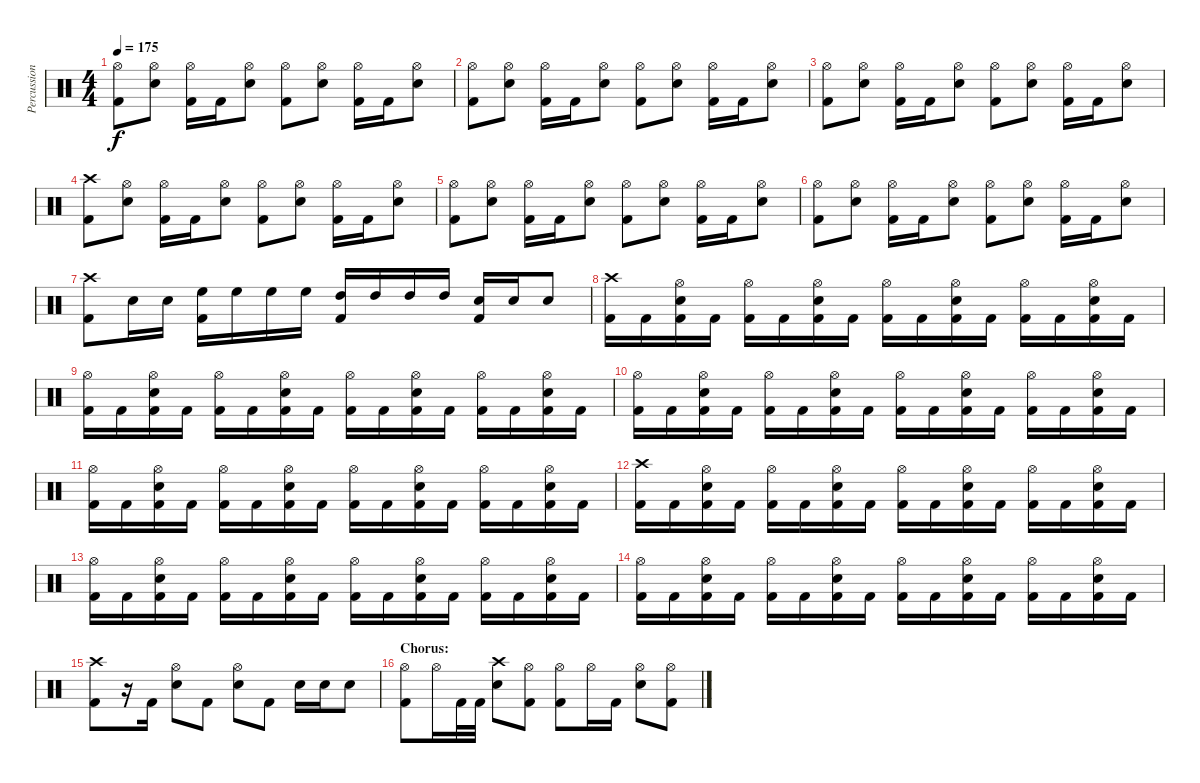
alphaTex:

\track ("Percussion" "Percussion") {instrument percussion}
\staff {score}
\articulation defaults
\ts (4 4)
\tempo 175
\clef neutral
\ks c
("Hi-Hat (open)" "Kick (hit) 2").8{dy f} ("Hi-Hat (open)" "Electric Snare (hit)").8 ("Hi-Hat (open)" "Kick (hit) 2").16 "Kick (hit) 2".16 ("Hi-Hat (open)" "Electric Snare (hit)").8 ("Hi-Hat (open)" "Kick (hit) 2").8 ("Hi-Hat (open)" "Electric Snare (hit)").8 ("Hi-Hat (open)" "Kick (hit) 2").16 "Kick (hit) 2".16 ("Hi-Hat (open)" "Electric Snare (hit)").8 |
("Hi-Hat (open)" "Kick (hit) 2").8 ("Hi-Hat (open)" "Electric Snare (hit)").8 ("Hi-Hat (open)" "Kick (hit) 2").16 "Kick (hit) 2".16 ("Hi-Hat (open)" "Electric Snare (hit)").8 ("Hi-Hat (open)" "Kick (hit) 2").8 ("Hi-Hat (open)" "Electric Snare (hit)").8 ("Hi-Hat (open)" "Kick (hit) 2").16 "Kick (hit) 2".16 ("Hi-Hat (open)" "Electric Snare (hit)").8 |
("Hi-Hat (open)" "Kick (hit) 2").8 ("Hi-Hat (open)" "Electric Snare (hit)").8 ("Hi-Hat (open)" "Kick (hit) 2").16 "Kick (hit) 2".16 ("Hi-Hat (open)" "Electric Snare (hit)").8 ("Hi-Hat (open)" "Kick (hit) 2").8 ("Hi-Hat (open)" "Electric Snare (hit)").8 ("Hi-Hat (open)" "Kick (hit) 2").16 "Kick (hit) 2".16 ("Hi-Hat (open)" "Electric Snare (hit)").8 |
("Crash high (hit)" "Kick (hit) 2").8 ("Hi-Hat (open)" "Electric Snare (hit)").8 ("Hi-Hat (open)" "Kick (hit) 2").16 "Kick (hit) 2".16 ("Hi-Hat (open)" "Electric Snare (hit)").8 ("Hi-Hat (open)" "Kick (hit) 2").8 ("Hi-Hat (open)" "Electric Snare (hit)").8 ("Hi-Hat (open)" "Kick (hit) 2").16 "Kick (hit) 2".16 ("Hi-Hat (open)" "Electric Snare (hit)").8 |
("Hi-Hat (open)" "Kick (hit) 2").8 ("Hi-Hat (open)" "Electric Snare (hit)").8 ("Hi-Hat (open)" "Kick (hit) 2").16 "Kick (hit) 2".16 ("Hi-Hat (open)" "Electric Snare (hit)").8 ("Hi-Hat (open)" "Kick (hit) 2").8 ("Hi-Hat (open)" "Electric Snare (hit)").8 ("Hi-Hat (open)" "Kick (hit) 2").16 "Kick (hit) 2".16 ("Hi-Hat (open)" "Electric Snare (hit)").8 |
("Hi-Hat (open)" "Kick (hit) 2").8 ("Hi-Hat (open)" "Electric Snare (hit)").8 ("Hi-Hat (open)" "Kick (hit) 2").16 "Kick (hit) 2".16 ("Hi-Hat (open)" "Electric Snare (hit)").8 ("Hi-Hat (open)" "Kick (hit) 2").8 ("Hi-Hat (open)" "Electric Snare (hit)").8 ("Hi-Hat (open)" "Kick (hit) 2").16 "Kick (hit) 2".16 ("Hi-Hat (open)" "Electric Snare (hit)").8 |
("Crash high (hit)" "Kick (hit) 2").8 "Electric Snare (hit)".16 "Electric Snare (hit)".16 ("High Floor Tom (hit)" "Kick (hit) 2").16 "High Floor Tom (hit)".16 "High Floor Tom (hit)".16 "High Floor Tom (hit)".16 ("High Tom (hit)" "Kick (hit) 2").16 "High Tom (hit)".16 "High Tom (hit)".16 "High Tom (hit)".16 ("Electric Snare (hit)" "Kick (hit) 2").16 "Electric Snare (hit)".16 "Electric Snare (hit)".8 |
("Crash high (hit)" "Kick (hit) 2").16 "Kick (hit) 2".16 ("Hi-Hat (open)" "Electric Snare (hit)" "Kick (hit) 2").16 "Kick (hit) 2".16 ("Hi-Hat (open)" "Kick (hit) 2").16 "Kick (hit) 2".16 ("Hi-Hat (open)" "Electric Snare (hit)" "Kick (hit) 2").16 "Kick (hit) 2".16 ("Hi-Hat (open)" "Kick (hit) 2").16 "Kick (hit) 2".16 ("Hi-Hat (open)" "Electric Snare (hit)" "Kick (hit) 2").16 "Kick (hit) 2".16 ("Hi-Hat (open)" "Kick (hit) 2").16 "Kick (hit) 2".16 ("Hi-Hat (open)" "Electric Snare (hit)" "Kick (hit) 2").16 "Kick (hit) 2".16 |
("Hi-Hat (open)" "Kick (hit) 2").16 "Kick (hit) 2".16 ("Hi-Hat (open)" "Electric Snare (hit)" "Kick (hit) 2").16 "Kick (hit) 2".16 ("Hi-Hat (open)" "Kick (hit) 2").16 "Kick (hit) 2".16 ("Hi-Hat (open)" "Electric Snare (hit)" "Kick (hit) 2").16 "Kick (hit) 2".16 ("Hi-Hat (open)" "Kick (hit) 2").16 "Kick (hit) 2".16 ("Hi-Hat (open)" "Electric Snare (hit)" "Kick (hit) 2").16 "Kick (hit) 2".16 ("Hi-Hat (open)" "Kick (hit) 2").16 "Kick (hit) 2".16 ("Hi-Hat (open)" "Electric Snare (hit)" "Kick (hit) 2").16 "Kick (hit) 2".16 |
("Hi-Hat (open)" "Kick (hit) 2").16 "Kick (hit) 2".16 ("Hi-Hat (open)" "Electric Snare (hit)" "Kick (hit) 2").16 "Kick (hit) 2".16 ("Hi-Hat (open)" "Kick (hit) 2").16 "Kick (hit) 2".16 ("Hi-Hat (open)" "Electric Snare (hit)" "Kick (hit) 2").16 "Kick (hit) 2".16 ("Hi-Hat (open)" "Kick (hit) 2").16 "Kick (hit) 2".16 ("Hi-Hat (open)" "Electric Snare (hit)" "Kick (hit) 2").16 "Kick (hit) 2".16 ("Hi-Hat (open)" "Kick (hit) 2").16 "Kick (hit) 2".16 ("Hi-Hat (open)" "Electric Snare (hit)" "Kick (hit) 2").16 "Kick (hit) 2".16 |
("Hi-Hat (open)" "Kick (hit) 2").16 "Kick (hit) 2".16 ("Hi-Hat (open)" "Electric Snare (hit)" "Kick (hit) 2").16 "Kick (hit) 2".16 ("Hi-Hat (open)" "Kick (hit) 2").16 "Kick (hit) 2".16 ("Hi-Hat (open)" "Electric Snare (hit)" "Kick (hit) 2").16 "Kick (hit) 2".16 ("Hi-Hat (open)" "Kick (hit) 2").16 "Kick (hit) 2".16 ("Hi-Hat (open)" "Electric Snare (hit)" "Kick (hit) 2").16 "Kick (hit) 2".16 ("Hi-Hat (open)" "Kick (hit) 2").16 "Kick (hit) 2".16 ("Hi-Hat (open)" "Electric Snare (hit)" "Kick (hit) 2").16 "Kick (hit) 2".16 |
("Crash high (hit)" "Kick (hit) 2").16 "Kick (hit) 2".16 ("Hi-Hat (open)" "Electric Snare (hit)" "Kick (hit) 2").16 "Kick (hit) 2".16 ("Hi-Hat (open)" "Kick (hit) 2").16 "Kick (hit) 2".16 ("Hi-Hat (open)" "Electric Snare (hit)" "Kick (hit) 2").16 "Kick (hit) 2".16 ("Hi-Hat (open)" "Kick (hit) 2").16 "Kick (hit) 2".16 ("Hi-Hat (open)" "Electric Snare (hit)" "Kick (hit) 2").16 "Kick (hit) 2".16 ("Hi-Hat (open)" "Kick (hit) 2").16 "Kick (hit) 2".16 ("Hi-Hat (open)" "Electric Snare (hit)" "Kick (hit) 2").16 "Kick (hit) 2".16 |
("Hi-Hat (open)" "Kick (hit) 2").16 "Kick (hit) 2".16 ("Hi-Hat (open)" "Electric Snare (hit)" "Kick (hit) 2").16 "Kick (hit) 2".16 ("Hi-Hat (open)" "Kick (hit) 2").16 "Kick (hit) 2".16 ("Hi-Hat (open)" "Electric Snare (hit)" "Kick (hit) 2").16 "Kick (hit) 2".16 ("Hi-Hat (open)" "Kick (hit) 2").16 "Kick (hit) 2".16 ("Hi-Hat (open)" "Electric Snare (hit)" "Kick (hit) 2").16 "Kick (hit) 2".16 ("Hi-Hat (open)" "Kick (hit) 2").16 "Kick (hit) 2".16 ("Hi-Hat (open)" "Electric Snare (hit)" "Kick (hit) 2").16 "Kick (hit) 2".16 |
("Hi-Hat (open)" "Kick (hit) 2").16 "Kick (hit) 2".16 ("Hi-Hat (open)" "Electric Snare (hit)" "Kick (hit) 2").16 "Kick (hit) 2".16 ("Hi-Hat (open)" "Kick (hit) 2").16 "Kick (hit) 2".16 ("Hi-Hat (open)" "Electric Snare (hit)" "Kick (hit) 2").16 "Kick (hit) 2".16 ("Hi-Hat (open)" "Kick (hit) 2").16 "Kick (hit) 2".16 ("Hi-Hat (open)" "Electric Snare (hit)" "Kick (hit) 2").16 "Kick (hit) 2".16 ("Hi-Hat (open)" "Kick (hit) 2").16 "Kick (hit) 2".16 ("Hi-Hat (open)" "Electric Snare (hit)" "Kick (hit) 2").16 "Kick (hit) 2".16 |
("Crash high (hit)" "Kick (hit) 2").8 r.16 "Kick (hit) 2".16 ("Hi-Hat (open)" "Electric Snare (hit)").8 "Kick (hit) 2".8 ("Hi-Hat (open)" "Electric Snare (hit)").8 "Kick (hit) 2".8 "Electric Snare (hit)".16 "Electric Snare (hit)".16 "Electric Snare (hit)".8 |
\section ("" "Chorus:")
("Hi-Hat (open)" "Kick (hit) 2").8 "Hi-Hat (open)".16 "Kick (hit) 2".32 "Kick (hit) 2".32 ("Crash high (hit)" "Electric Snare (hit)").8 ("Hi-Hat (open)" "Kick (hit) 2").8 ("Hi-Hat (open)" "Kick (hit) 2").8 "Hi-Hat (open)".16 "Kick (hit) 2".16 ("Hi-Hat (open)" "Electric Snare (hit)").8 ("Hi-Hat (open)" "Kick (hit) 2").8
